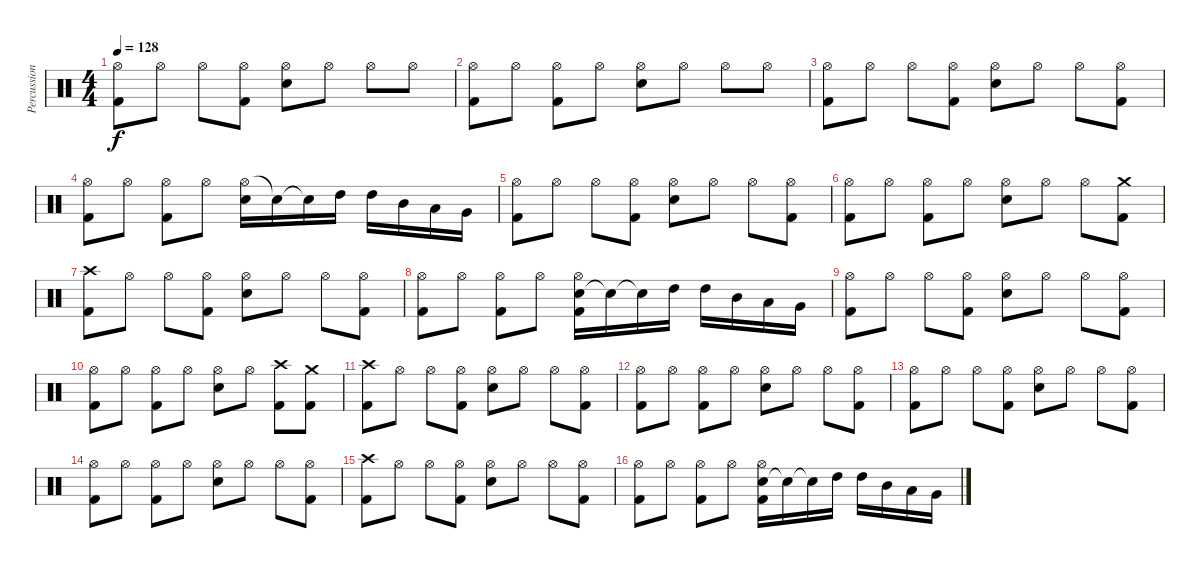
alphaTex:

\track ("Percussion" "Percussion") {instrument percussion}
\staff {score}
\articulation defaults
\ts (4 4)
\tempo 128
\clef neutral
\ks c
("Hi-Hat (open)" "Kick (hit) 2").8{dy f} "Hi-Hat (open)".8 "Hi-Hat (open)".8 ("Hi-Hat (open)" "Kick (hit) 2").8 ("Hi-Hat (open)" "Electric Snare (hit)").8 "Hi-Hat (open)".8 "Hi-Hat (open)".8 "Hi-Hat (open)".8 |
("Hi-Hat (open)" "Kick (hit) 2").8 "Hi-Hat (open)".8 ("Hi-Hat (open)" "Kick (hit) 2").8 "Hi-Hat (open)".8 ("Hi-Hat (open)" "Electric Snare (hit)").8 "Hi-Hat (open)".8 "Hi-Hat (open)".8 "Hi-Hat (open)".8 |
("Hi-Hat (open)" "Kick (hit) 2").8 "Hi-Hat (open)".8 "Hi-Hat (open)".8 ("Hi-Hat (open)" "Kick (hit) 2").8 ("Hi-Hat (open)" "Electric Snare (hit)").8 "Hi-Hat (open)".8 "Hi-Hat (open)".8 ("Hi-Hat (open)" "Kick (hit) 2").8 |
("Hi-Hat (open)" "Kick (hit) 2").8 "Hi-Hat (open)".8 ("Hi-Hat (open)" "Kick (hit) 2").8 "Hi-Hat (open)".8 ("Hi-Hat (open)" "Electric Snare (hit)").16 "Electric Snare (hit)"{t}.16 "Electric Snare (hit)"{t}.16 "High Tom (hit)".16 "High Tom (hit)".16 "Mid Tom (hit)".16 "Low Tom (hit)".16 "Very Low Tom (hit)".16 |
("Hi-Hat (open)" "Kick (hit) 2").8 "Hi-Hat (open)".8 "Hi-Hat (open)".8 ("Hi-Hat (open)" "Kick (hit) 2").8 ("Hi-Hat (open)" "Electric Snare (hit)").8 "Hi-Hat (open)".8 "Hi-Hat (open)".8 ("Hi-Hat (open)" "Kick (hit) 2").8 |
("Hi-Hat (open)" "Kick (hit) 2").8 "Hi-Hat (open)".8 ("Hi-Hat (open)" "Kick (hit) 2").8 "Hi-Hat (open)".8 ("Hi-Hat (open)" "Electric Snare (hit)").8 "Hi-Hat (open)".8 "Hi-Hat (open)".8 ("Crash medium (hit)" "Kick (hit) 2").8 |
("Crash high (hit)" "Kick (hit) 2").8 "Hi-Hat (open)".8 "Hi-Hat (open)".8 ("Hi-Hat (open)" "Kick (hit) 2").8 ("Hi-Hat (open)" "Electric Snare (hit)").8 "Hi-Hat (open)".8 "Hi-Hat (open)".8 ("Hi-Hat (open)" "Kick (hit) 2").8 |
("Hi-Hat (open)" "Kick (hit) 2").8 "Hi-Hat (open)".8 ("Hi-Hat (open)" "Kick (hit) 2").8 "Hi-Hat (open)".8 ("Electric Snare (hit)" "Hi-Hat (open)" "Kick (hit) 2").16 "Electric Snare (hit)"{t}.16 "Electric Snare (hit)"{t}.16 "High Tom (hit)".16 "High Tom (hit)".16 "Mid Tom (hit)".16 "Low Tom (hit)".16 "Very Low Tom (hit)".16 |
("Hi-Hat (open)" "Kick (hit) 2").8 "Hi-Hat (open)".8 "Hi-Hat (open)".8 ("Hi-Hat (open)" "Kick (hit) 2").8 ("Hi-Hat (open)" "Electric Snare (hit)").8 "Hi-Hat (open)".8 "Hi-Hat (open)".8 ("Hi-Hat (open)" "Kick (hit) 2").8 |
("Hi-Hat (open)" "Kick (hit) 2").8 "Hi-Hat (open)".8 ("Hi-Hat (open)" "Kick (hit) 2").8 "Hi-Hat (open)".8 ("Hi-Hat (open)" "Electric Snare (hit)").8 "Hi-Hat (open)".8 ("Crash high (hit)" "Kick (hit) 2").8 ("Crash medium (hit)" "Kick (hit) 2").8 |
("Crash high (hit)" "Kick (hit) 2").8 "Hi-Hat (open)".8 "Hi-Hat (open)".8 ("Hi-Hat (open)" "Kick (hit) 2").8 ("Hi-Hat (open)" "Electric Snare (hit)").8 "Hi-Hat (open)".8 "Hi-Hat (open)".8 ("Hi-Hat (open)" "Kick (hit) 2").8 |
("Hi-Hat (open)" "Kick (hit) 2").8 "Hi-Hat (open)".8 ("Hi-Hat (open)" "Kick (hit) 2").8 "Hi-Hat (open)".8 ("Hi-Hat (open)" "Electric Snare (hit)").8 "Hi-Hat (open)".8 "Hi-Hat (open)".8 ("Hi-Hat (open)" "Kick (hit) 2").8 |
("Hi-Hat (open)" "Kick (hit) 2").8 "Hi-Hat (open)".8 "Hi-Hat (open)".8 ("Hi-Hat (open)" "Kick (hit) 2").8 ("Hi-Hat (open)" "Electric Snare (hit)").8 "Hi-Hat (open)".8 "Hi-Hat (open)".8 ("Hi-Hat (open)" "Kick (hit) 2").8 |
("Hi-Hat (open)" "Kick (hit) 2").8 "Hi-Hat (open)".8 ("Hi-Hat (open)" "Kick (hit) 2").8 "Hi-Hat (open)".8 ("Hi-Hat (open)" "Electric Snare (hit)").8 "Hi-Hat (open)".8 "Hi-Hat (open)".8 ("Hi-Hat (open)" "Kick (hit) 2").8 |
("Crash high (hit)" "Kick (hit) 2").8 "Hi-Hat (open)".8 "Hi-Hat (open)".8 ("Hi-Hat (open)" "Kick (hit) 2").8 ("Hi-Hat (open)" "Electric Snare (hit)").8 "Hi-Hat (open)".8 "Hi-Hat (open)".8 ("Hi-Hat (open)" "Kick (hit) 2").8 |
("Hi-Hat (open)" "Kick (hit) 2").8 "Hi-Hat (open)".8 ("Hi-Hat (open)" "Kick (hit) 2").8 "Hi-Hat (open)".8 ("Electric Snare (hit)" "Hi-Hat (open)" "Kick (hit) 2").16 "Electric Snare (hit)"{t}.16 "Electric Snare (hit)"{t}.16 "High Tom (hit)".16 "High Tom (hit)".16 "Mid Tom (hit)".16 "Low Tom (hit)".16 "Very Low Tom (hit)".16
